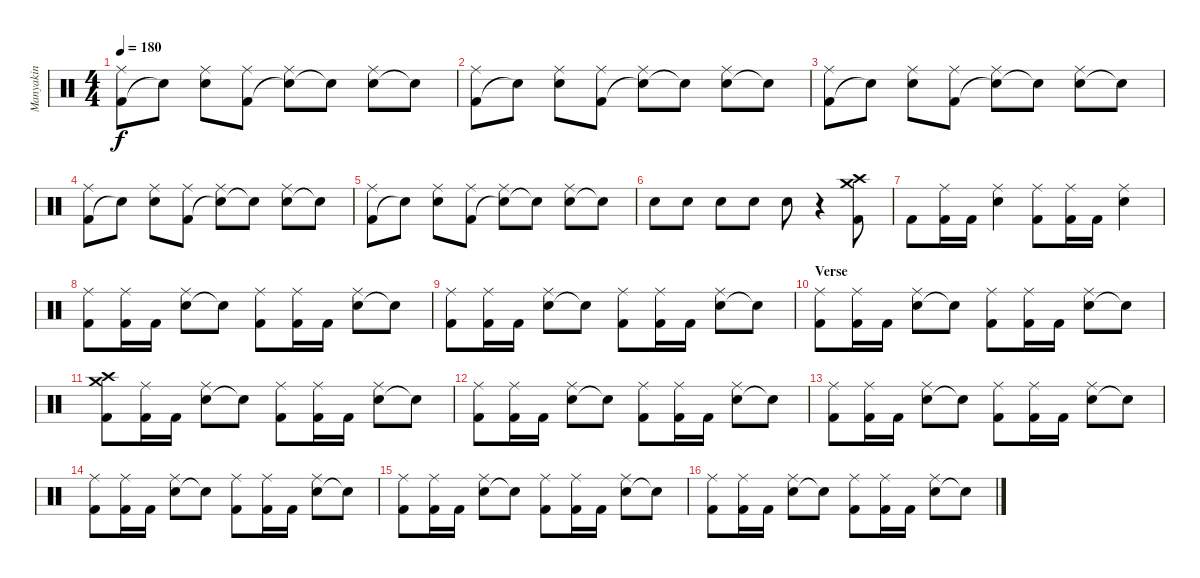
\track ("Manyakin" "Manyakin") {instrument percussion}
\staff {score}
\articulation defaults
\ts (4 4)
\tempo 180
\clef neutral
\ks c
("Kick (hit) 2" "Ride (middle)").8{dy f} "Snare (hit)"{t}.8 ("Snare (hit) 2" "Ride (middle)").8 ("Kick (hit) 2" "Ride (middle)").8 ("Snare (hit)"{t} "Ride (middle)").8 "Snare (hit)"{t}.8 ("Snare (hit) 2" "Ride (middle)").8 "Snare (hit) 2"{t}.8 |
("Kick (hit) 2" "Ride (middle)").8 "Snare (hit)"{t}.8 ("Snare (hit) 2" "Ride (middle)").8 ("Kick (hit) 2" "Ride (middle)").8 ("Snare (hit)"{t} "Ride (middle)").8 "Snare (hit)"{t}.8 ("Snare (hit) 2" "Ride (middle)").8 "Snare (hit) 2"{t}.8 |
("Kick (hit) 2" "Ride (middle)").8 "Snare (hit)"{t}.8 ("Snare (hit) 2" "Ride (middle)").8 ("Kick (hit) 2" "Ride (middle)").8 ("Snare (hit)"{t} "Ride (middle)").8 "Snare (hit)"{t}.8 ("Snare (hit) 2" "Ride (middle)").8 "Snare (hit) 2"{t}.8 |
("Kick (hit) 2" "Ride (middle)").8 "Snare (hit)"{t}.8 ("Snare (hit) 2" "Ride (middle)").8 ("Kick (hit) 2" "Ride (middle)").8 ("Snare (hit)"{t} "Ride (middle)").8 "Snare (hit)"{t}.8 ("Snare (hit) 2" "Ride (middle)").8 "Snare (hit) 2"{t}.8 |
("Kick (hit) 2" "Ride (middle)").8 "Snare (hit)"{t}.8 ("Snare (hit) 2" "Ride (middle)").8 ("Kick (hit) 2" "Ride (middle)").8 ("Snare (hit)"{t} "Ride (middle)").8 "Snare (hit)"{t}.8 ("Snare (hit) 2" "Ride (middle)").8 "Snare (hit) 2"{t}.8 |
"Snare (hit) 2".8 "Snare (hit) 2".8 "Snare (hit) 2".8 "Snare (hit) 2".8 "Snare (hit) 2".8 r.4 ("Kick (hit) 2" "Crash high (hit)" "Crash medium (hit)").8 |
"Kick (hit) 2".8 ("Kick (hit) 2" "Ride (middle)").16 "Kick (hit) 2".16 ("Snare (hit) 2" "Ride (middle)").4 ("Kick (hit) 2" "Ride (middle)").8 ("Kick (hit) 2" "Ride (middle)").16 "Kick (hit) 2".16 ("Snare (hit) 2" "Ride (middle)").4 |
("Kick (hit) 2" "Ride (middle)").8 ("Kick (hit) 2" "Ride (middle)").16 "Kick (hit) 2".16 ("Snare (hit) 2" "Ride (middle)").8 "Snare (hit)"{t}.8 ("Kick (hit) 2" "Ride (middle)").8 ("Kick (hit) 2" "Ride (middle)").16 "Kick (hit) 2".16 ("Snare (hit) 2" "Ride (middle)").8 "Snare (hit) 2"{t}.8 |
("Kick (hit) 2" "Ride (middle)").8 ("Kick (hit) 2" "Ride (middle)").16 "Kick (hit) 2".16 ("Snare (hit) 2" "Ride (middle)").8 "Snare (hit)"{t}.8 ("Kick (hit) 2" "Ride (middle)").8 ("Kick (hit) 2" "Ride (middle)").16 "Kick (hit) 2".16 ("Snare (hit) 2" "Ride (middle)").8 "Snare (hit) 2"{t}.8 |
\section ("" "Verse")
("Kick (hit) 2" "Ride (middle)").8 ("Kick (hit) 2" "Ride (middle)").16 "Kick (hit) 2".16 ("Snare (hit) 2" "Ride (middle)").8 "Snare (hit)"{t}.8 ("Kick (hit) 2" "Ride (middle)").8 ("Kick (hit) 2" "Ride (middle)").16 "Kick (hit) 2".16 ("Snare (hit) 2" "Ride (middle)").8 "Snare (hit) 2"{t}.8 |
("Kick (hit) 2" "Crash high (hit)" "Crash medium (hit)").8 ("Kick (hit) 2" "Ride (middle)").16 "Kick (hit) 2".16 ("Snare (hit) 2" "Ride (middle)").8 "Snare (hit)"{t}.8 ("Kick (hit) 2" "Ride (middle)").8 ("Kick (hit) 2" "Ride (middle)").16 "Kick (hit) 2".16 ("Snare (hit) 2" "Ride (middle)").8 "Snare (hit) 2"{t}.8 |
("Kick (hit) 2" "Ride (middle)").8 ("Kick (hit) 2" "Ride (middle)").16 "Kick (hit) 2".16 ("Snare (hit) 2" "Ride (middle)").8 "Snare (hit)"{t}.8 ("Kick (hit) 2" "Ride (middle)").8 ("Kick (hit) 2" "Ride (middle)").16 "Kick (hit) 2".16 ("Snare (hit) 2" "Ride (middle)").8 "Snare (hit) 2"{t}.8 |
("Kick (hit) 2" "Ride (middle)").8 ("Kick (hit) 2" "Ride (middle)").16 "Kick (hit) 2".16 ("Snare (hit) 2" "Ride (middle)").8 "Snare (hit)"{t}.8 ("Kick (hit) 2" "Ride (middle)").8 ("Kick (hit) 2" "Ride (middle)").16 "Kick (hit) 2".16 ("Snare (hit) 2" "Ride (middle)").8 "Snare (hit) 2"{t}.8 |
("Kick (hit) 2" "Ride (middle)").8 ("Kick (hit) 2" "Ride (middle)").16 "Kick (hit) 2".16 ("Snare (hit) 2" "Ride (middle)").8 "Snare (hit)"{t}.8 ("Kick (hit) 2" "Ride (middle)").8 ("Kick (hit) 2" "Ride (middle)").16 "Kick (hit) 2".16 ("Snare (hit) 2" "Ride (middle)").8 "Snare (hit) 2"{t}.8 |
("Kick (hit) 2" "Ride (middle)").8 ("Kick (hit) 2" "Ride (middle)").16 "Kick (hit) 2".16 ("Snare (hit) 2" "Ride (middle)").8 "Snare (hit)"{t}.8 ("Kick (hit) 2" "Ride (middle)").8 ("Kick (hit) 2" "Ride (middle)").16 "Kick (hit) 2".16 ("Snare (hit) 2" "Ride (middle)").8 "Snare (hit) 2"{t}.8 |
("Kick (hit) 2" "Ride (middle)").8 ("Kick (hit) 2" "Ride (middle)").16 "Kick (hit) 2".16 ("Snare (hit) 2" "Ride (middle)").8 "Snare (hit)"{t}.8 ("Kick (hit) 2" "Ride (middle)").8 ("Kick (hit) 2" "Ride (middle)").16 "Kick (hit) 2".16 ("Snare (hit) 2" "Ride (middle)").8 "Snare (hit) 2"{t}.8
